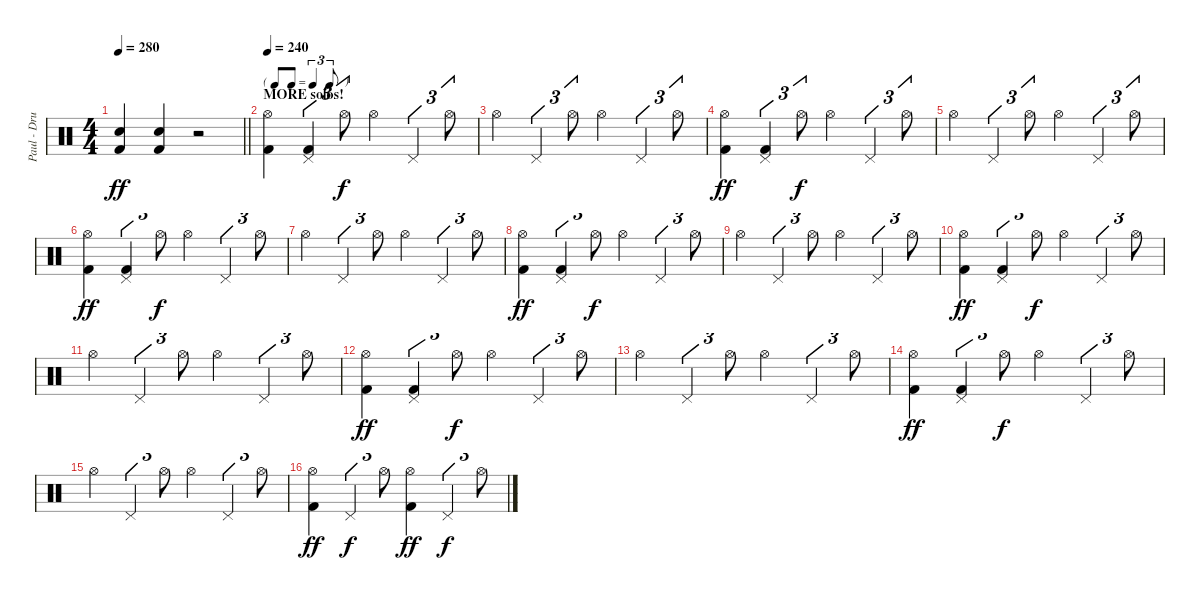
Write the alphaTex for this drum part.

\track ("Paul - Drums" "Paul - Dru") {instrument percussion}
\staff {score}
\articulation defaults
\ts (4 4)
\tempo 280
\clef neutral
\barLineRight lightlight
\ks c
("Electric Snare (hit)" "Kick (hit) 2").4{dy ff} ("Electric Snare (hit)" "Kick (hit) 2").4 r.2 |
\tf triplet8th
\section ("" "MORE solos!")
\tempo 240
("Hi-Hat (open)" "Kick (hit) 2").4 ("Pedal Hi-Hat (hit)" "Kick (hit) 2").4{tu (3 2)} "Hi-Hat (open)".8{tu (3 2) dy f} "Hi-Hat (open)".4 "Pedal Hi-Hat (hit)".4{tu (3 2)} "Hi-Hat (open)".8{tu (3 2)} |
"Hi-Hat (open)".4 "Pedal Hi-Hat (hit)".4{tu (3 2)} "Hi-Hat (open)".8{tu (3 2)} "Hi-Hat (open)".4 "Pedal Hi-Hat (hit)".4{tu (3 2)} "Hi-Hat (open)".8{tu (3 2)} |
("Hi-Hat (open)" "Kick (hit) 2").4{dy ff} ("Pedal Hi-Hat (hit)" "Kick (hit) 2").4{tu (3 2)} "Hi-Hat (open)".8{tu (3 2) dy f} "Hi-Hat (open)".4 "Pedal Hi-Hat (hit)".4{tu (3 2)} "Hi-Hat (open)".8{tu (3 2)} |
"Hi-Hat (open)".4 "Pedal Hi-Hat (hit)".4{tu (3 2)} "Hi-Hat (open)".8{tu (3 2)} "Hi-Hat (open)".4 "Pedal Hi-Hat (hit)".4{tu (3 2)} "Hi-Hat (open)".8{tu (3 2)} |
("Hi-Hat (open)" "Kick (hit) 2").4{dy ff} ("Pedal Hi-Hat (hit)" "Kick (hit) 2").4{tu (3 2)} "Hi-Hat (open)".8{tu (3 2) dy f} "Hi-Hat (open)".4 "Pedal Hi-Hat (hit)".4{tu (3 2)} "Hi-Hat (open)".8{tu (3 2)} |
"Hi-Hat (open)".4 "Pedal Hi-Hat (hit)".4{tu (3 2)} "Hi-Hat (open)".8{tu (3 2)} "Hi-Hat (open)".4 "Pedal Hi-Hat (hit)".4{tu (3 2)} "Hi-Hat (open)".8{tu (3 2)} |
("Hi-Hat (open)" "Kick (hit) 2").4{dy ff} ("Pedal Hi-Hat (hit)" "Kick (hit) 2").4{tu (3 2)} "Hi-Hat (open)".8{tu (3 2) dy f} "Hi-Hat (open)".4 "Pedal Hi-Hat (hit)".4{tu (3 2)} "Hi-Hat (open)".8{tu (3 2)} |
"Hi-Hat (open)".4 "Pedal Hi-Hat (hit)".4{tu (3 2)} "Hi-Hat (open)".8{tu (3 2)} "Hi-Hat (open)".4 "Pedal Hi-Hat (hit)".4{tu (3 2)} "Hi-Hat (open)".8{tu (3 2)} |
("Hi-Hat (open)" "Kick (hit) 2").4{dy ff} ("Pedal Hi-Hat (hit)" "Kick (hit) 2").4{tu (3 2)} "Hi-Hat (open)".8{tu (3 2) dy f} "Hi-Hat (open)".4 "Pedal Hi-Hat (hit)".4{tu (3 2)} "Hi-Hat (open)".8{tu (3 2)} |
"Hi-Hat (open)".4 "Pedal Hi-Hat (hit)".4{tu (3 2)} "Hi-Hat (open)".8{tu (3 2)} "Hi-Hat (open)".4 "Pedal Hi-Hat (hit)".4{tu (3 2)} "Hi-Hat (open)".8{tu (3 2)} |
("Hi-Hat (open)" "Kick (hit) 2").4{dy ff} ("Pedal Hi-Hat (hit)" "Kick (hit) 2").4{tu (3 2)} "Hi-Hat (open)".8{tu (3 2) dy f} "Hi-Hat (open)".4 "Pedal Hi-Hat (hit)".4{tu (3 2)} "Hi-Hat (open)".8{tu (3 2)} |
"Hi-Hat (open)".4 "Pedal Hi-Hat (hit)".4{tu (3 2)} "Hi-Hat (open)".8{tu (3 2)} "Hi-Hat (open)".4 "Pedal Hi-Hat (hit)".4{tu (3 2)} "Hi-Hat (open)".8{tu (3 2)} |
("Hi-Hat (open)" "Kick (hit) 2").4{dy ff} ("Pedal Hi-Hat (hit)" "Kick (hit) 2").4{tu (3 2)} "Hi-Hat (open)".8{tu (3 2) dy f} "Hi-Hat (open)".4 "Pedal Hi-Hat (hit)".4{tu (3 2)} "Hi-Hat (open)".8{tu (3 2)} |
"Hi-Hat (open)".4 "Pedal Hi-Hat (hit)".4{tu (3 2)} "Hi-Hat (open)".8{tu (3 2)} "Hi-Hat (open)".4 "Pedal Hi-Hat (hit)".4{tu (3 2)} "Hi-Hat (open)".8{tu (3 2)} |
("Hi-Hat (open)" "Kick (hit) 2").4{dy ff} "Pedal Hi-Hat (hit)".4{tu (3 2) dy f} "Hi-Hat (open)".8{tu (3 2)} ("Hi-Hat (open)" "Kick (hit) 2").4{dy ff} "Pedal Hi-Hat (hit)".4{tu (3 2) dy f} "Hi-Hat (open)".8{tu (3 2)}
